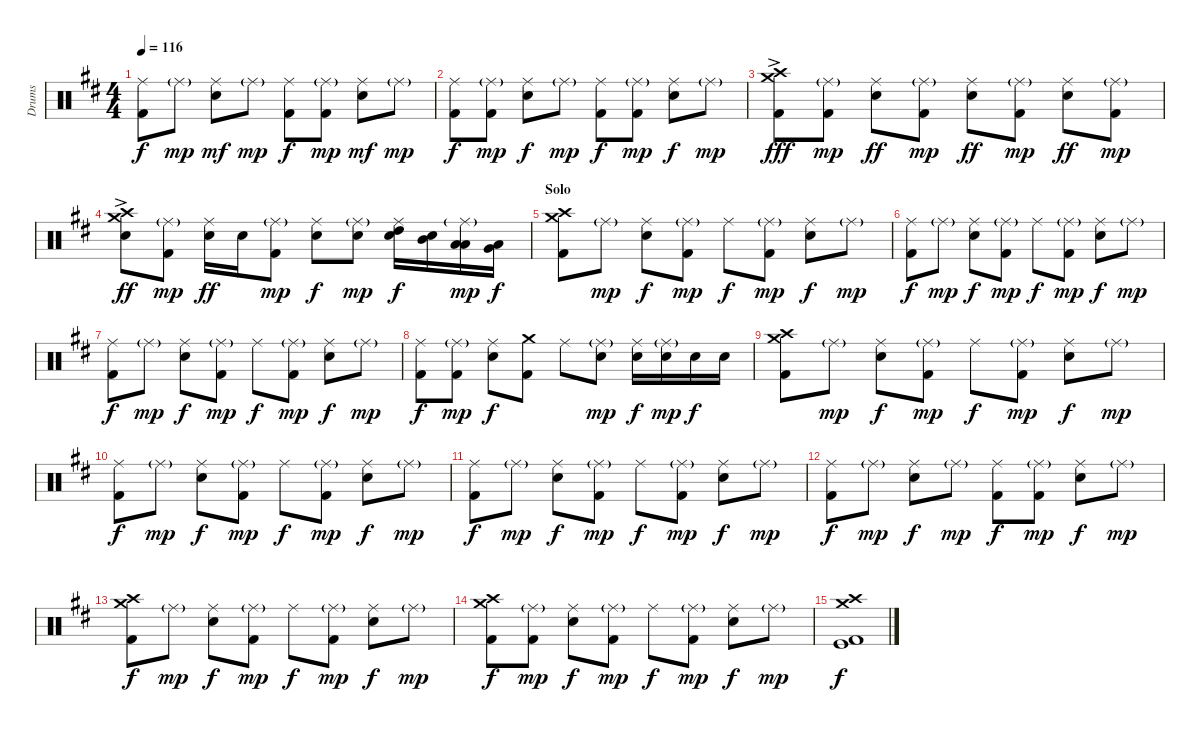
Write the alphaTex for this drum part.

\track ("Drums" "Drums") {instrument percussion}
\staff {score}
\articulation defaults
\ts (4 4)
\tempo 116
\clef neutral
\ks d
("Ride (middle)" "Kick (hit) 2").8{dy f} "Ride (middle)"{g}.8{dy mp} ("Ride (middle)" "Snare (hit) 2").8{dy mf} "Ride (middle)"{g}.8{dy mp} ("Ride (middle)" "Kick (hit) 2").8{dy f} ("Ride (middle)"{g} "Kick (hit) 2").8{dy mp} ("Ride (middle)" "Snare (hit) 2").8{dy mf} "Ride (middle)"{g}.8{dy mp} |
("Ride (middle)" "Kick (hit) 2").8{dy f} ("Ride (middle)"{g} "Kick (hit) 2").8{dy mp} ("Ride (middle)" "Snare (hit) 2").8{dy f} "Ride (middle)"{g}.8{dy mp} ("Ride (middle)" "Kick (hit) 2").8{dy f} ("Ride (middle)"{g} "Kick (hit) 2").8{dy mp} ("Ride (middle)" "Snare (hit) 2").8{dy f} "Ride (middle)"{g}.8{dy mp} |
("Crash high (hit)"{ac} "Crash medium (hit)" "Kick (hit) 2").8{dy fff} ("Ride (middle)"{g} "Kick (hit) 2").8{dy mp} ("Ride (middle)" "Snare (hit) 2").8{dy ff} ("Ride (middle)"{g} "Kick (hit) 2").8{dy mp} ("Ride (middle)" "Snare (hit) 2").8{dy ff} ("Ride (middle)"{g} "Kick (hit) 2").8{dy mp} ("Ride (middle)" "Snare (hit) 2").8{dy ff} ("Ride (middle)"{g} "Kick (hit) 2").8{dy mp} |
("Crash high (hit)"{ac} "Crash medium (hit)" "Snare (hit) 2").8{dy ff} ("Ride (middle)"{g} "Kick (hit) 2").8{dy mp} ("Ride (middle)" "Snare (hit) 2").16{dy ff} "Snare (hit) 2".16 ("Ride (middle)"{g} "Kick (hit) 2").8{dy mp} ("Ride (middle)" "Snare (hit) 2").8{dy f} ("Ride (middle)"{g} "Snare (hit) 2").8{dy mp} ("Ride (middle)" "High Tom (hit)" "Electric Snare (hit)").16{dy f} ("Mid Tom (hit)" "Electric Snare (hit)").16 ("Ride (middle)"{g} "Low Tom (hit)" "Low Floor Tom (hit)").16{dy mp} ("Very Low Tom (hit)" "Low Floor Tom (hit)").16{dy f} |
\section ("" "Solo")
("Crash high (hit)" "Crash medium (hit)" "Kick (hit) 2").8 "Ride (middle)"{g}.8{dy mp} ("Ride (middle)" "Snare (hit) 2").8{dy f} ("Ride (middle)"{g} "Kick (hit) 2").8{dy mp} "Ride (middle)".8{dy f} ("Ride (middle)"{g} "Kick (hit) 2").8{dy mp} ("Ride (middle)" "Snare (hit) 2").8{dy f} "Ride (middle)"{g}.8{dy mp} |
("Ride (middle)" "Kick (hit) 2").8{dy f} "Ride (middle)"{g}.8{dy mp} ("Ride (middle)" "Snare (hit) 2").8{dy f} ("Ride (middle)"{g} "Kick (hit) 2").8{dy mp} "Ride (middle)".8{dy f} ("Ride (middle)"{g} "Kick (hit) 2").8{dy mp} ("Ride (middle)" "Snare (hit) 2").8{dy f} "Ride (middle)"{g}.8{dy mp} |
("Ride (middle)" "Kick (hit) 2").8{dy f} "Ride (middle)"{g}.8{dy mp} ("Ride (middle)" "Snare (hit) 2").8{dy f} ("Ride (middle)"{g} "Kick (hit) 2").8{dy mp} "Ride (middle)".8{dy f} ("Ride (middle)"{g} "Kick (hit) 2").8{dy mp} ("Ride (middle)" "Snare (hit) 2").8{dy f} "Ride (middle)"{g}.8{dy mp} |
("Ride (middle)" "Kick (hit) 2").8{dy f} ("Ride (middle)"{g} "Kick (hit) 2").8{dy mp} ("Ride (middle)" "Snare (hit) 2").8{dy f} ("Crash medium (hit)" "Kick (hit) 2").8 "Ride (middle)".8 ("Ride (middle)"{g} "Snare (hit) 2").8{dy mp} ("Ride (middle)" "Snare (hit) 2").16{dy f} ("Ride (middle)"{g} "Snare (hit) 2").16{dy mp} "Snare (hit) 2".16{dy f} "Snare (hit) 2".16 |
("Crash high (hit)" "Crash medium (hit)" "Kick (hit) 2").8 "Ride (middle)"{g}.8{dy mp} ("Ride (middle)" "Snare (hit) 2").8{dy f} ("Ride (middle)"{g} "Kick (hit) 2").8{dy mp} "Ride (middle)".8{dy f} ("Ride (middle)"{g} "Kick (hit) 2").8{dy mp} ("Ride (middle)" "Snare (hit) 2").8{dy f} "Ride (middle)"{g}.8{dy mp} |
("Ride (middle)" "Kick (hit) 2").8{dy f} "Ride (middle)"{g}.8{dy mp} ("Ride (middle)" "Snare (hit) 2").8{dy f} ("Ride (middle)"{g} "Kick (hit) 2").8{dy mp} "Ride (middle)".8{dy f} ("Ride (middle)"{g} "Kick (hit) 2").8{dy mp} ("Ride (middle)" "Snare (hit) 2").8{dy f} "Ride (middle)"{g}.8{dy mp} |
("Ride (middle)" "Kick (hit) 2").8{dy f} "Ride (middle)"{g}.8{dy mp} ("Ride (middle)" "Snare (hit) 2").8{dy f} ("Ride (middle)"{g} "Kick (hit) 2").8{dy mp} "Ride (middle)".8{dy f} ("Ride (middle)"{g} "Kick (hit) 2").8{dy mp} ("Ride (middle)" "Snare (hit) 2").8{dy f} "Ride (middle)"{g}.8{dy mp} |
("Ride (middle)" "Kick (hit) 2").8{dy f} "Ride (middle)"{g}.8{dy mp} ("Ride (middle)" "Snare (hit) 2").8{dy f} "Ride (middle)"{g}.8{dy mp} ("Ride (middle)" "Kick (hit) 2").8{dy f} ("Ride (middle)"{g} "Kick (hit) 2").8{dy mp} ("Ride (middle)" "Snare (hit) 2").8{dy f} "Ride (middle)"{g}.8{dy mp} |
("Crash high (hit)" "Crash medium (hit)" "Kick (hit) 2").8{dy f} "Ride (middle)"{g}.8{dy mp} ("Ride (middle)" "Snare (hit) 2").8{dy f} ("Ride (middle)"{g} "Kick (hit) 2").8{dy mp} "Ride (middle)".8{dy f} ("Ride (middle)"{g} "Kick (hit) 2").8{dy mp} ("Ride (middle)" "Snare (hit) 2").8{dy f} "Ride (middle)"{g}.8{dy mp} |
("Crash high (hit)" "Crash medium (hit)" "Kick (hit) 2").8{dy f} ("Ride (middle)"{g} "Kick (hit) 2").8{dy mp} ("Ride (middle)" "Snare (hit) 2").8{dy f} ("Ride (middle)"{g} "Kick (hit) 2").8{dy mp} "Ride (middle)".8{dy f} ("Ride (middle)"{g} "Kick (hit) 2").8{dy mp} ("Ride (middle)" "Snare (hit) 2").8{dy f} "Ride (middle)"{g}.8{dy mp} |
("Crash high (hit)" "Crash medium (hit)" "Kick (hit)" "Kick (hit) 2").1{dy f}
